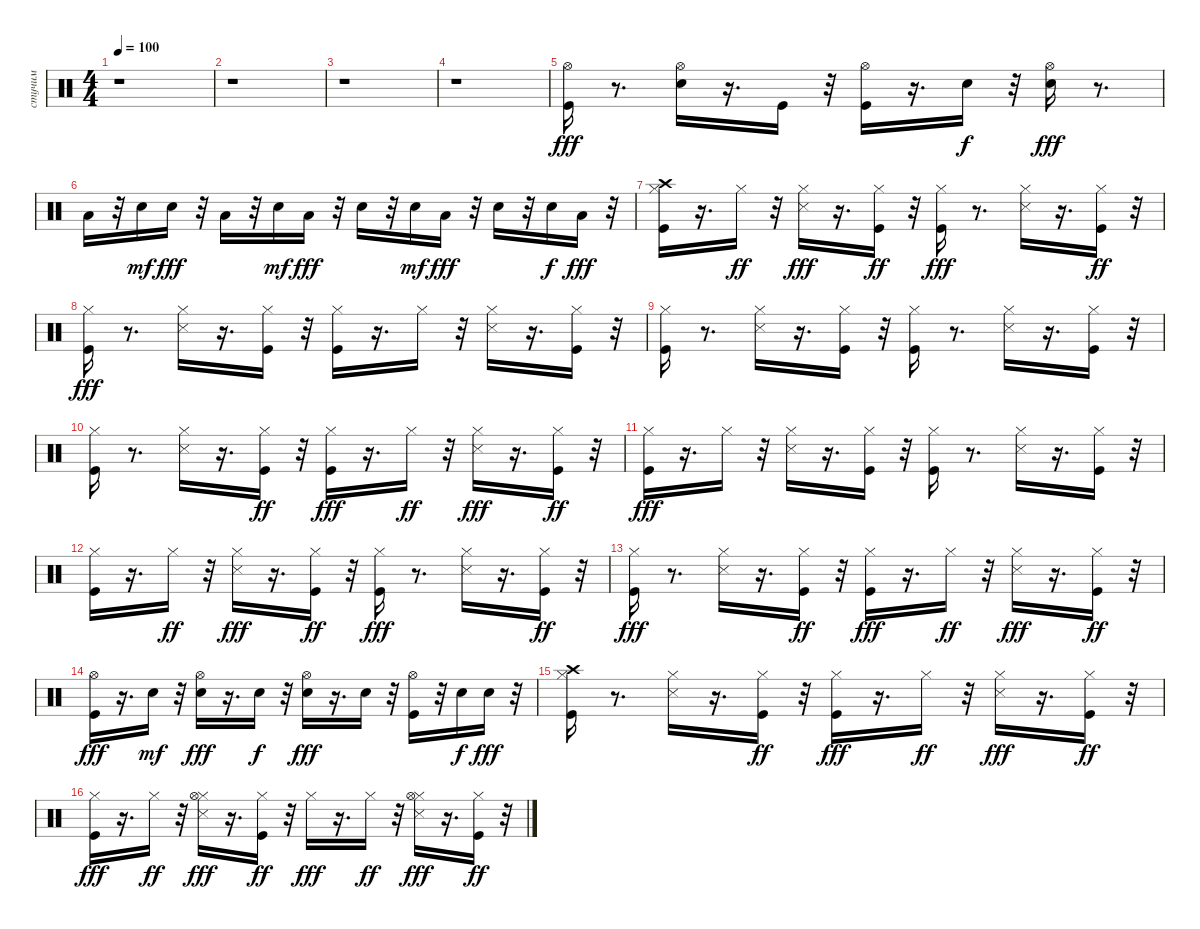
\track ("стучим" "стучим") {instrument percussion}
\staff {score}
\articulation defaults
\ts (4 4)
\tempo 100
\clef neutral
\ks c
r.1{dy fff} |
r.1 |
r.1 |
r.1 |
("Kick (hit)" "Hi-Hat (open)").16 r.8{d} ("Snare (hit) 2" "Hi-Hat (open)").16 r.16{d} "Kick (hit)".16 r.32 ("Kick (hit)" "Hi-Hat (open)").16 r.16{d} "Snare (hit) 2".16{dy f} r.32 ("Snare (hit) 2" "Hi-Hat (open)").16{dy fff} r.8{d} |
"Low Floor Tom (hit)".16 r.32 "Snare (hit) 2".16{dy mf} "Snare (hit) 2".16{dy fff balance 0} r.32 "Low Floor Tom (hit)".16 r.32 "Snare (hit) 2".16{dy mf} "Low Floor Tom (hit)".16{dy fff balance 16} r.32 "Snare (hit) 2".16 r.32 "Snare (hit) 2".16{dy mf} "Low Floor Tom (hit)".16{dy fff} r.32 "Snare (hit) 2".16{balance 0} r.32 "Snare (hit) 2".16{dy f} "Low Floor Tom (hit)".16{dy fff} r.32 |
("Kick (hit)" "Hi-Hat (closed)" "Crash high (hit)").16{balance 8} r.16{d} "Hi-Hat (closed)".16{dy ff} r.32 ("Hi-Hat (closed)" "Snare (side stick) 3").16{dy fff} r.16{d} ("Kick (hit)" "Hi-Hat (closed)").16{dy ff} r.32 ("Kick (hit)" "Hi-Hat (closed)").16{dy fff} r.8{d} ("Hi-Hat (closed)" "Snare (side stick) 3").16 r.16{d} ("Kick (hit)" "Hi-Hat (closed)").16{dy ff} r.32 |
("Kick (hit)" "Hi-Hat (closed)").16{dy fff} r.8{d} ("Hi-Hat (closed)" "Snare (side stick) 3").16 r.16{d} ("Kick (hit)" "Hi-Hat (closed)").16 r.32 ("Kick (hit)" "Hi-Hat (closed)").16 r.16{d} "Hi-Hat (closed)".16 r.32 ("Hi-Hat (closed)" "Snare (side stick) 3").16 r.16{d} ("Kick (hit)" "Hi-Hat (closed)").16 r.32 |
("Kick (hit)" "Hi-Hat (closed)").16 r.8{d} ("Hi-Hat (closed)" "Snare (side stick) 3").16 r.16{d} ("Kick (hit)" "Hi-Hat (closed)").16 r.32 ("Kick (hit)" "Hi-Hat (closed)").16 r.8{d} ("Hi-Hat (closed)" "Snare (side stick) 3").16 r.16{d} ("Kick (hit)" "Hi-Hat (closed)").16 r.32 |
("Kick (hit)" "Hi-Hat (closed)").16 r.8{d} ("Hi-Hat (closed)" "Snare (side stick) 3").16 r.16{d} ("Kick (hit)" "Hi-Hat (closed)").16{dy ff} r.32 ("Kick (hit)" "Hi-Hat (closed)").16{dy fff} r.16{d} "Hi-Hat (closed)".16{dy ff} r.32 ("Hi-Hat (closed)" "Snare (side stick) 3").16{dy fff} r.16{d} ("Kick (hit)" "Hi-Hat (closed)").16{dy ff} r.32 |
("Kick (hit)" "Hi-Hat (closed)").16{dy fff} r.16{d} "Hi-Hat (closed)".16 r.32 ("Hi-Hat (closed)" "Snare (side stick) 3").16 r.16{d} ("Kick (hit)" "Hi-Hat (closed)").16 r.32 ("Kick (hit)" "Hi-Hat (closed)").16 r.8{d} ("Hi-Hat (closed)" "Snare (side stick) 3").16 r.16{d} ("Kick (hit)" "Hi-Hat (closed)").16 r.32 |
("Kick (hit)" "Hi-Hat (closed)").16 r.16{d} "Hi-Hat (closed)".16{dy ff} r.32 ("Hi-Hat (closed)" "Snare (side stick) 3").16{dy fff} r.16{d} ("Kick (hit)" "Hi-Hat (closed)").16{dy ff} r.32 ("Kick (hit)" "Hi-Hat (closed)").16{dy fff} r.8{d} ("Hi-Hat (closed)" "Snare (side stick) 3").16 r.16{d} ("Kick (hit)" "Hi-Hat (closed)").16{dy ff} r.32 |
("Kick (hit)" "Hi-Hat (closed)").16{dy fff} r.8{d} ("Hi-Hat (closed)" "Snare (side stick) 3").16 r.16{d} ("Kick (hit)" "Hi-Hat (closed)").16{dy ff} r.32 ("Kick (hit)" "Hi-Hat (closed)").16{dy fff} r.16{d} "Hi-Hat (closed)".16{dy ff} r.32 ("Hi-Hat (closed)" "Snare (side stick) 3").16{dy fff} r.16{d} ("Kick (hit)" "Hi-Hat (closed)").16{dy ff} r.32 |
("Kick (hit)" "Hi-Hat (open)").16{dy fff} r.16{d} "Snare (hit) 2".16{dy mf} r.32 ("Snare (hit) 2" "Hi-Hat (open)").16{dy fff} r.16{d} "Snare (hit) 2".16{dy f} r.32 ("Snare (hit) 2" "Hi-Hat (open)").16{dy fff} r.16{d} "Snare (hit) 2".16 r.32 ("Kick (hit)" "Hi-Hat (open)").16{balance 0} r.32 "Snare (hit) 2".16{dy f} "Snare (hit) 2".16{dy fff} r.32 |
("Kick (hit)" "Hi-Hat (closed)" "Crash high (hit)").16{balance 16} r.8{d} ("Hi-Hat (closed)" "Snare (side stick) 3").16 r.16{d} ("Kick (hit)" "Hi-Hat (closed)").16{dy ff} r.32 ("Kick (hit)" "Hi-Hat (closed)").16{dy fff} r.16{d} "Hi-Hat (closed)".16{dy ff} r.32 ("Hi-Hat (closed)" "Snare (side stick) 3").16{dy fff balance 8} r.16{d} ("Kick (hit)" "Hi-Hat (closed)").16{dy ff} r.32 |
("Kick (hit)" "Hi-Hat (closed)").16{dy fff} r.16{d} "Hi-Hat (closed)".16{dy ff} r.32 ("Hi-Hat (closed)" "Hi-Hat (open)" "Snare (side stick) 3").16{dy fff} r.16{d} ("Kick (hit)" "Hi-Hat (closed)").16{dy ff} r.32 "Hi-Hat (closed)".16{dy fff} r.16{d} "Hi-Hat (closed)".16{dy ff} r.32 ("Hi-Hat (closed)" "Hi-Hat (open)" "Snare (side stick) 3").16{dy fff} r.16{d} ("Kick (hit)" "Hi-Hat (closed)").16{dy ff} r.32
